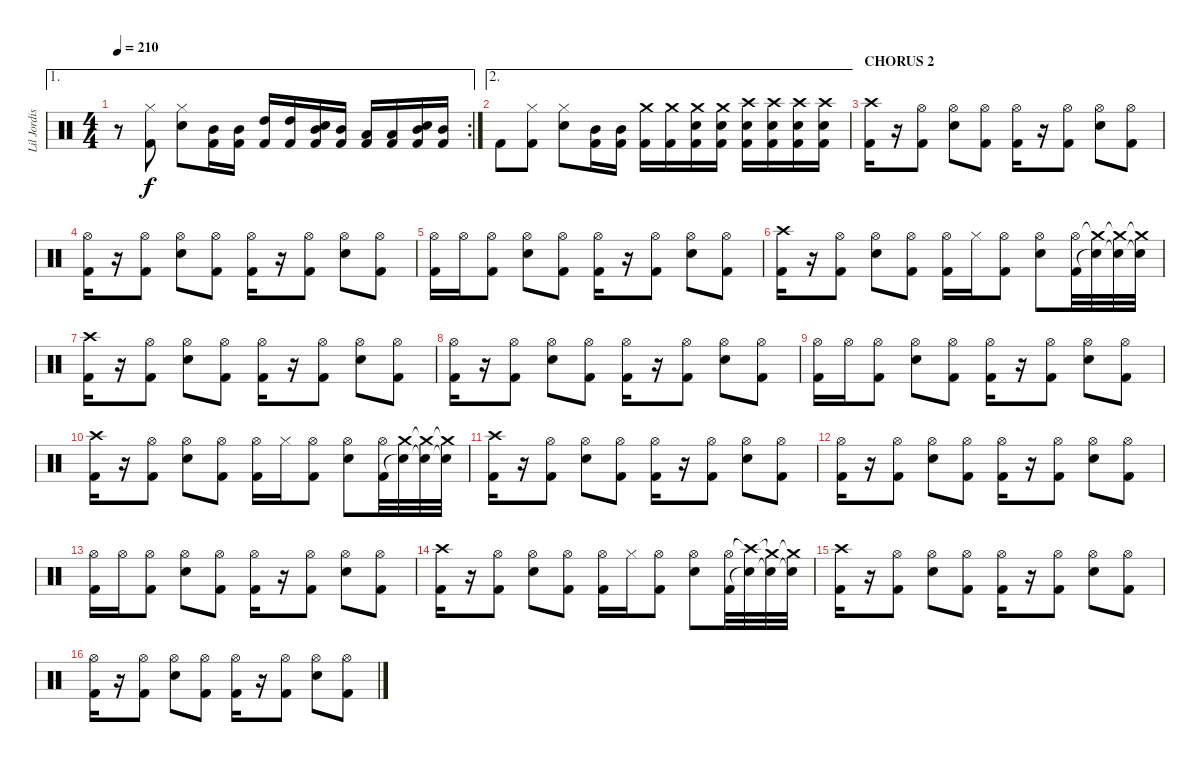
\track ("Lil Jordison" "Lil Jordis") {instrument percussion}
\staff {score}
\articulation defaults
\ae 1
\rc 2
\ts (4 4)
\tempo 210
\clef neutral
\ks c
r.8{dy f} ("Hi-Hat (closed)" "Kick (hit) 2").8 ("Hi-Hat (closed)" "Electric Snare (hit)").8 ("Mid Tom (hit)" "Kick (hit) 2").16 ("Mid Tom (hit)" "Kick (hit) 2").16 ("High Tom (hit)" "Kick (hit) 2").16 ("High Tom (hit)" "Kick (hit) 2").16 ("Mid Tom (hit)" "Electric Snare (hit)" "Kick (hit) 2").16 ("Mid Tom (hit)" "Kick (hit) 2").16 ("Low Tom (hit)" "Kick (hit) 2").16 ("Low Tom (hit)" "Kick (hit) 2").16 ("Mid Tom (hit)" "Electric Snare (hit)" "Kick (hit) 2").16 ("Mid Tom (hit)" "Kick (hit) 2").16 |
\ae 2 "Kick (hit) 2".8
("Hi-Hat (closed)" "Kick (hit) 2").8 ("Hi-Hat (closed)" "Electric Snare (hit)").8 ("Mid Tom (hit)" "Kick (hit) 2").16 ("Mid Tom (hit)" "Kick (hit) 2").16 ("Crash medium (hit)" "Kick (hit) 2").16 ("Crash medium (hit)" "Kick (hit) 2").16 ("Crash medium (hit)" "Electric Snare (hit)" "Kick (hit) 2").16 ("Crash medium (hit)" "Electric Snare (hit)" "Kick (hit) 2").16 ("Crash high (hit)" "Electric Snare (hit)" "Kick (hit) 2").16 ("Crash high (hit)" "Electric Snare (hit)" "Kick (hit) 2").16 ("Crash high (hit)" "Electric Snare (hit)" "Kick (hit) 2").16 ("Crash high (hit)" "Electric Snare (hit)" "Kick (hit) 2").16 |
\section ("" "CHORUS 2")
("Crash high (hit)" "Kick (hit) 2").16 r.16 ("Hi-Hat (open)" "Kick (hit) 2").8 ("Hi-Hat (open)" "Electric Snare (hit)").8 ("Hi-Hat (open)" "Kick (hit) 2").8 ("Hi-Hat (open)" "Kick (hit) 2").16 r.16 ("Hi-Hat (open)" "Kick (hit) 2").8 ("Hi-Hat (open)" "Electric Snare (hit)").8 ("Hi-Hat (open)" "Kick (hit) 2").8 |
("Hi-Hat (open)" "Kick (hit) 2").16 r.16 ("Hi-Hat (open)" "Kick (hit) 2").8 ("Hi-Hat (open)" "Electric Snare (hit)").8 ("Hi-Hat (open)" "Kick (hit) 2").8 ("Hi-Hat (open)" "Kick (hit) 2").16 r.16 ("Hi-Hat (open)" "Kick (hit) 2").8 ("Hi-Hat (open)" "Electric Snare (hit)").8 ("Hi-Hat (open)" "Kick (hit) 2").8 |
("Hi-Hat (open)" "Kick (hit) 2").16 "Hi-Hat (open)".16 ("Hi-Hat (open)" "Kick (hit) 2").8 ("Hi-Hat (open)" "Electric Snare (hit)").8 ("Hi-Hat (open)" "Kick (hit) 2").8 ("Hi-Hat (open)" "Kick (hit) 2").16 r.16 ("Hi-Hat (open)" "Kick (hit) 2").8 ("Hi-Hat (open)" "Electric Snare (hit)").8 ("Hi-Hat (open)" "Kick (hit) 2").8 |
("Crash high (hit)" "Kick (hit) 2").16 r.16 ("Hi-Hat (open)" "Kick (hit) 2").8 ("Hi-Hat (open)" "Electric Snare (hit)").8 ("Hi-Hat (open)" "Kick (hit) 2").8 ("Hi-Hat (open)" "Kick (hit) 2").16 "Hi-Hat (closed)".16 ("Hi-Hat (open)" "Kick (hit) 2").8 ("Hi-Hat (open)" "Electric Snare (hit)").8 ("Hi-Hat (open)" "Kick (hit) 2").32 ("Crash medium (hit)"{t} "Electric Snare (hit)"{t}).32 ("Crash medium (hit)"{t} "Electric Snare (hit)"{t}).32 ("Crash medium (hit)"{t} "Electric Snare (hit)"{t}).32 |
("Crash high (hit)" "Kick (hit) 2").16 r.16 ("Hi-Hat (open)" "Kick (hit) 2").8 ("Hi-Hat (open)" "Electric Snare (hit)").8 ("Hi-Hat (open)" "Kick (hit) 2").8 ("Hi-Hat (open)" "Kick (hit) 2").16 r.16 ("Hi-Hat (open)" "Kick (hit) 2").8 ("Hi-Hat (open)" "Electric Snare (hit)").8 ("Hi-Hat (open)" "Kick (hit) 2").8 |
("Hi-Hat (open)" "Kick (hit) 2").16 r.16 ("Hi-Hat (open)" "Kick (hit) 2").8 ("Hi-Hat (open)" "Electric Snare (hit)").8 ("Hi-Hat (open)" "Kick (hit) 2").8 ("Hi-Hat (open)" "Kick (hit) 2").16 r.16 ("Hi-Hat (open)" "Kick (hit) 2").8 ("Hi-Hat (open)" "Electric Snare (hit)").8 ("Hi-Hat (open)" "Kick (hit) 2").8 |
("Hi-Hat (open)" "Kick (hit) 2").16 "Hi-Hat (open)".16 ("Hi-Hat (open)" "Kick (hit) 2").8 ("Hi-Hat (open)" "Electric Snare (hit)").8 ("Hi-Hat (open)" "Kick (hit) 2").8 ("Hi-Hat (open)" "Kick (hit) 2").16 r.16 ("Hi-Hat (open)" "Kick (hit) 2").8 ("Hi-Hat (open)" "Electric Snare (hit)").8 ("Hi-Hat (open)" "Kick (hit) 2").8 |
("Crash high (hit)" "Kick (hit) 2").16 r.16 ("Hi-Hat (open)" "Kick (hit) 2").8 ("Hi-Hat (open)" "Electric Snare (hit)").8 ("Hi-Hat (open)" "Kick (hit) 2").8 ("Hi-Hat (open)" "Kick (hit) 2").16 "Hi-Hat (closed)".16 ("Hi-Hat (open)" "Kick (hit) 2").8 ("Hi-Hat (open)" "Electric Snare (hit)").8 ("Hi-Hat (open)" "Kick (hit) 2").32 ("Crash medium (hit)" "Electric Snare (hit)"{t}).32 ("Crash medium (hit)"{t} "Electric Snare (hit)"{t}).32 ("Crash medium (hit)"{t} "Electric Snare (hit)"{t}).32 |
("Crash high (hit)" "Kick (hit) 2").16 r.16 ("Hi-Hat (open)" "Kick (hit) 2").8 ("Hi-Hat (open)" "Electric Snare (hit)").8 ("Hi-Hat (open)" "Kick (hit) 2").8 ("Hi-Hat (open)" "Kick (hit) 2").16 r.16 ("Hi-Hat (open)" "Kick (hit) 2").8 ("Hi-Hat (open)" "Electric Snare (hit)").8 ("Hi-Hat (open)" "Kick (hit) 2").8 |
("Hi-Hat (open)" "Kick (hit) 2").16 r.16 ("Hi-Hat (open)" "Kick (hit) 2").8 ("Hi-Hat (open)" "Electric Snare (hit)").8 ("Hi-Hat (open)" "Kick (hit) 2").8 ("Hi-Hat (open)" "Kick (hit) 2").16 r.16 ("Hi-Hat (open)" "Kick (hit) 2").8 ("Hi-Hat (open)" "Electric Snare (hit)").8 ("Hi-Hat (open)" "Kick (hit) 2").8 |
("Hi-Hat (open)" "Kick (hit) 2").16 "Hi-Hat (open)".16 ("Hi-Hat (open)" "Kick (hit) 2").8 ("Hi-Hat (open)" "Electric Snare (hit)").8 ("Hi-Hat (open)" "Kick (hit) 2").8 ("Hi-Hat (open)" "Kick (hit) 2").16 r.16 ("Hi-Hat (open)" "Kick (hit) 2").8 ("Hi-Hat (open)" "Electric Snare (hit)").8 ("Hi-Hat (open)" "Kick (hit) 2").8 |
("Crash high (hit)" "Kick (hit) 2").16 r.16 ("Hi-Hat (open)" "Kick (hit) 2").8 ("Hi-Hat (open)" "Electric Snare (hit)").8 ("Hi-Hat (open)" "Kick (hit) 2").8 ("Hi-Hat (open)" "Kick (hit) 2").16 "Hi-Hat (closed)".16 ("Hi-Hat (open)" "Kick (hit) 2").8 ("Hi-Hat (open)" "Electric Snare (hit)").8 ("Hi-Hat (open)" "Kick (hit) 2").32 ("Crash high (hit)"{t} "Electric Snare (hit)"{t}).32 ("Crash medium (hit)"{t} "Electric Snare (hit)"{t}).32 ("Crash medium (hit)"{t} "Electric Snare (hit)"{t}).32 |
("Crash high (hit)" "Kick (hit) 2").16 r.16 ("Hi-Hat (open)" "Kick (hit) 2").8 ("Hi-Hat (open)" "Electric Snare (hit)").8 ("Hi-Hat (open)" "Kick (hit) 2").8 ("Hi-Hat (open)" "Kick (hit) 2").16 r.16 ("Hi-Hat (open)" "Kick (hit) 2").8 ("Hi-Hat (open)" "Electric Snare (hit)").8 ("Hi-Hat (open)" "Kick (hit) 2").8 |
("Hi-Hat (open)" "Kick (hit) 2").16 r.16 ("Hi-Hat (open)" "Kick (hit) 2").8 ("Hi-Hat (open)" "Electric Snare (hit)").8 ("Hi-Hat (open)" "Kick (hit) 2").8 ("Hi-Hat (open)" "Kick (hit) 2").16 r.16 ("Hi-Hat (open)" "Kick (hit) 2").8 ("Hi-Hat (open)" "Electric Snare (hit)").8 ("Hi-Hat (open)" "Kick (hit) 2").8
